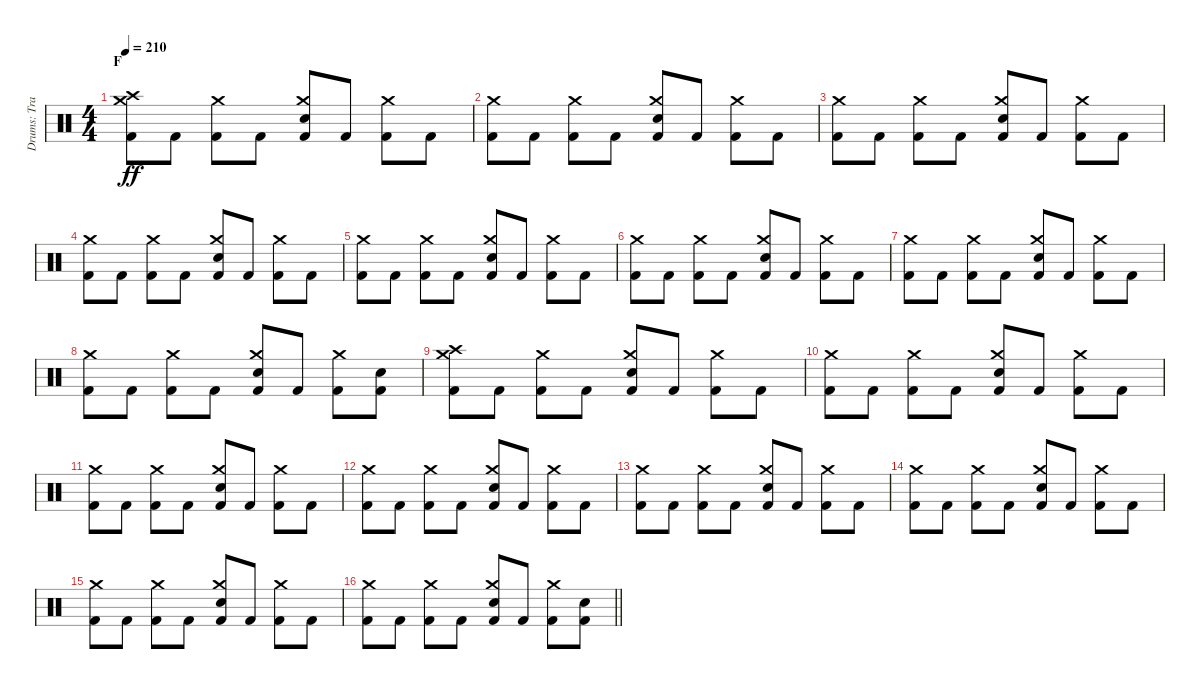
\track ("Drums: Trav Clarke" "Drums: Tra") {instrument percussion}
\staff {score}
\articulation defaults
\ts (4 4)
\section ("" "F")
\tempo 210
\clef neutral
\ks c
("Kick (hit) 2" "Crash high (hit)" "Crash medium (hit)").8{dy ff} "Kick (hit) 2".8 ("Kick (hit) 2" "Crash medium (hit)").8 "Kick (hit) 2".8 ("Kick (hit) 2" "Snare (hit) 2" "Crash medium (hit)").8 "Kick (hit) 2".8 ("Kick (hit) 2" "Crash medium (hit)").8 "Kick (hit) 2".8 |
("Kick (hit) 2" "Crash medium (hit)").8 "Kick (hit) 2".8 ("Kick (hit) 2" "Crash medium (hit)").8 "Kick (hit) 2".8 ("Kick (hit) 2" "Snare (hit) 2" "Crash medium (hit)").8 "Kick (hit) 2".8 ("Kick (hit) 2" "Crash medium (hit)").8 "Kick (hit) 2".8 |
("Kick (hit) 2" "Crash medium (hit)").8 "Kick (hit) 2".8 ("Kick (hit) 2" "Crash medium (hit)").8 "Kick (hit) 2".8 ("Kick (hit) 2" "Snare (hit) 2" "Crash medium (hit)").8 "Kick (hit) 2".8 ("Kick (hit) 2" "Crash medium (hit)").8 "Kick (hit) 2".8 |
("Kick (hit) 2" "Crash medium (hit)").8 "Kick (hit) 2".8 ("Kick (hit) 2" "Crash medium (hit)").8 "Kick (hit) 2".8 ("Kick (hit) 2" "Snare (hit) 2" "Crash medium (hit)").8 "Kick (hit) 2".8 ("Kick (hit) 2" "Crash medium (hit)").8 "Kick (hit) 2".8 |
("Kick (hit) 2" "Crash medium (hit)").8 "Kick (hit) 2".8 ("Kick (hit) 2" "Crash medium (hit)").8 "Kick (hit) 2".8 ("Kick (hit) 2" "Snare (hit) 2" "Crash medium (hit)").8 "Kick (hit) 2".8 ("Kick (hit) 2" "Crash medium (hit)").8 "Kick (hit) 2".8 |
("Kick (hit) 2" "Crash medium (hit)").8 "Kick (hit) 2".8 ("Kick (hit) 2" "Crash medium (hit)").8 "Kick (hit) 2".8 ("Kick (hit) 2" "Snare (hit) 2" "Crash medium (hit)").8 "Kick (hit) 2".8 ("Kick (hit) 2" "Crash medium (hit)").8 "Kick (hit) 2".8 |
("Kick (hit) 2" "Crash medium (hit)").8 "Kick (hit) 2".8 ("Kick (hit) 2" "Crash medium (hit)").8 "Kick (hit) 2".8 ("Kick (hit) 2" "Snare (hit) 2" "Crash medium (hit)").8 "Kick (hit) 2".8 ("Kick (hit) 2" "Crash medium (hit)").8 "Kick (hit) 2".8 |
("Kick (hit) 2" "Crash medium (hit)").8 "Kick (hit) 2".8 ("Kick (hit) 2" "Crash medium (hit)").8 "Kick (hit) 2".8 ("Kick (hit) 2" "Snare (hit) 2" "Crash medium (hit)").8 "Kick (hit) 2".8 ("Kick (hit) 2" "Crash medium (hit)").8 ("Kick (hit) 2" "Snare (hit) 2").8 |
("Kick (hit) 2" "Crash high (hit)" "Crash medium (hit)").8 "Kick (hit) 2".8 ("Kick (hit) 2" "Crash medium (hit)").8 "Kick (hit) 2".8 ("Kick (hit) 2" "Snare (hit) 2" "Crash medium (hit)").8 "Kick (hit) 2".8 ("Kick (hit) 2" "Crash medium (hit)").8 "Kick (hit) 2".8 |
("Kick (hit) 2" "Crash medium (hit)").8 "Kick (hit) 2".8 ("Kick (hit) 2" "Crash medium (hit)").8 "Kick (hit) 2".8 ("Kick (hit) 2" "Snare (hit) 2" "Crash medium (hit)").8 "Kick (hit) 2".8 ("Kick (hit) 2" "Crash medium (hit)").8 "Kick (hit) 2".8 |
("Kick (hit) 2" "Crash medium (hit)").8 "Kick (hit) 2".8 ("Kick (hit) 2" "Crash medium (hit)").8 "Kick (hit) 2".8 ("Kick (hit) 2" "Snare (hit) 2" "Crash medium (hit)").8 "Kick (hit) 2".8 ("Kick (hit) 2" "Crash medium (hit)").8 "Kick (hit) 2".8 |
("Kick (hit) 2" "Crash medium (hit)").8 "Kick (hit) 2".8 ("Kick (hit) 2" "Crash medium (hit)").8 "Kick (hit) 2".8 ("Kick (hit) 2" "Snare (hit) 2" "Crash medium (hit)").8 "Kick (hit) 2".8 ("Kick (hit) 2" "Crash medium (hit)").8 "Kick (hit) 2".8 |
("Kick (hit) 2" "Crash medium (hit)").8 "Kick (hit) 2".8 ("Kick (hit) 2" "Crash medium (hit)").8 "Kick (hit) 2".8 ("Kick (hit) 2" "Snare (hit) 2" "Crash medium (hit)").8 "Kick (hit) 2".8 ("Kick (hit) 2" "Crash medium (hit)").8 "Kick (hit) 2".8 |
("Kick (hit) 2" "Crash medium (hit)").8 "Kick (hit) 2".8 ("Kick (hit) 2" "Crash medium (hit)").8 "Kick (hit) 2".8 ("Kick (hit) 2" "Snare (hit) 2" "Crash medium (hit)").8 "Kick (hit) 2".8 ("Kick (hit) 2" "Crash medium (hit)").8 "Kick (hit) 2".8 |
("Kick (hit) 2" "Crash medium (hit)").8 "Kick (hit) 2".8 ("Kick (hit) 2" "Crash medium (hit)").8 "Kick (hit) 2".8 ("Kick (hit) 2" "Snare (hit) 2" "Crash medium (hit)").8 "Kick (hit) 2".8 ("Kick (hit) 2" "Crash medium (hit)").8 "Kick (hit) 2".8 |
\barLineRight lightlight
("Kick (hit) 2" "Crash medium (hit)").8 "Kick (hit) 2".8 ("Kick (hit) 2" "Crash medium (hit)").8 "Kick (hit) 2".8 ("Kick (hit) 2" "Snare (hit) 2" "Crash medium (hit)").8 "Kick (hit) 2".8 ("Kick (hit) 2" "Crash medium (hit)").8 ("Kick (hit) 2" "Snare (hit) 2").8
